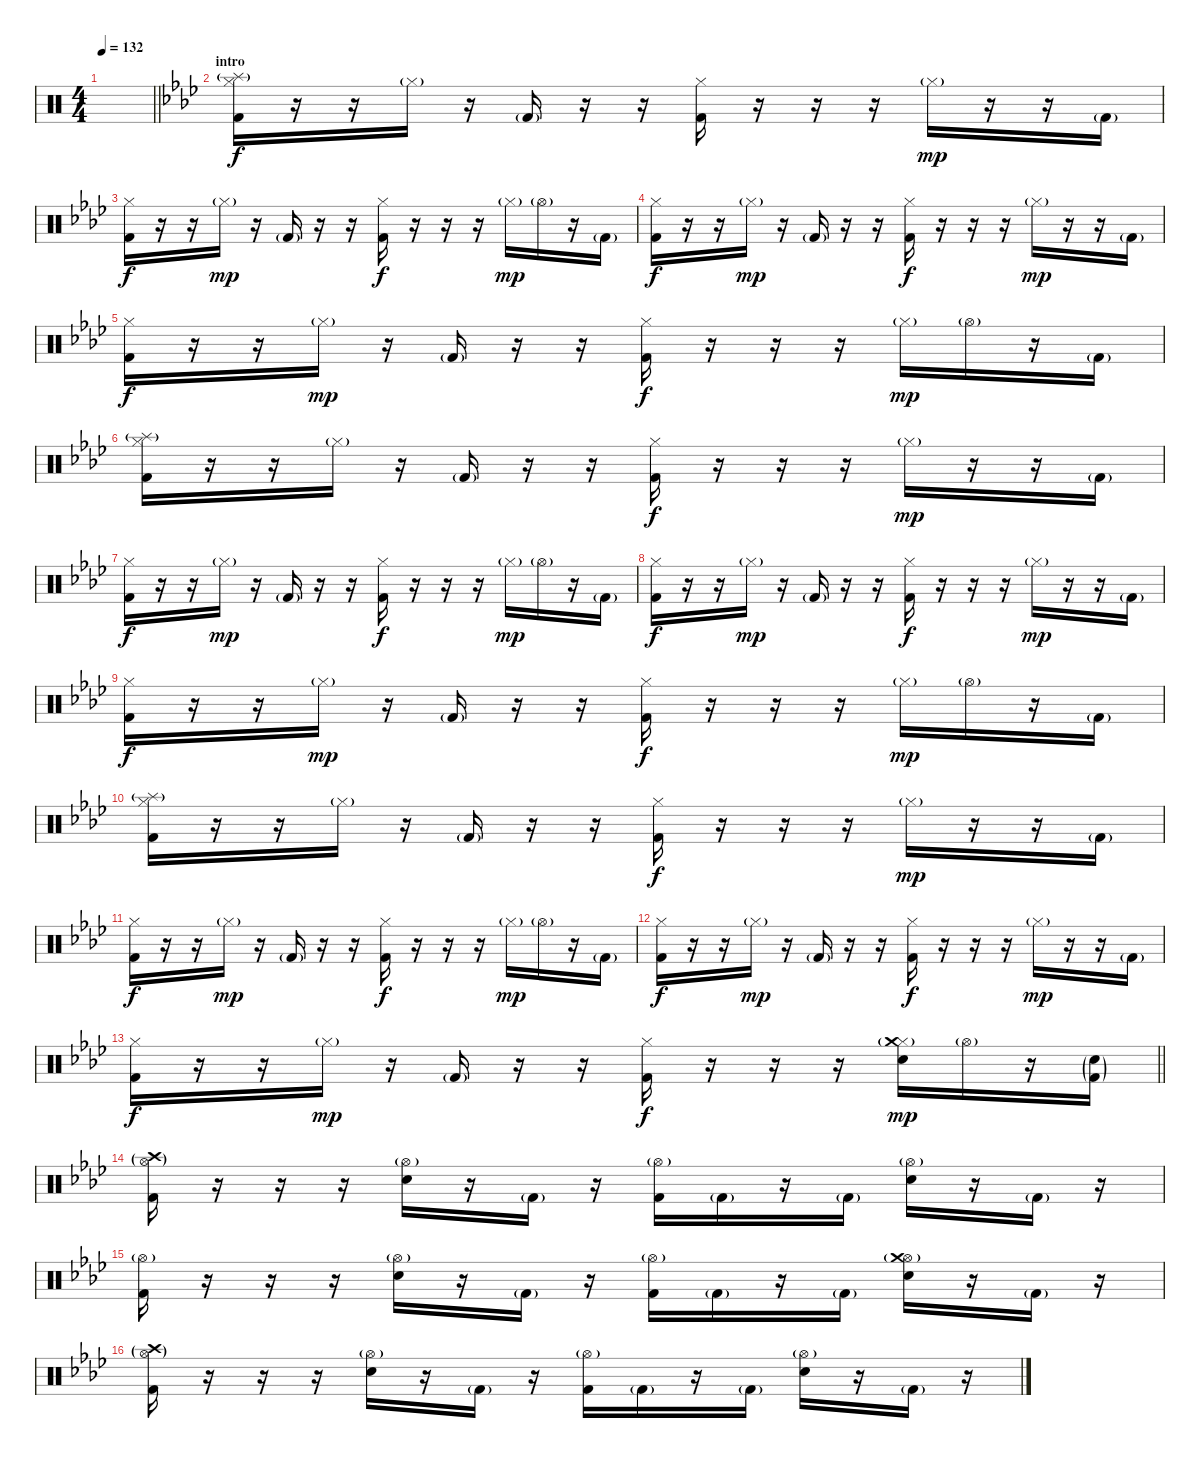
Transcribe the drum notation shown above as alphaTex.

\track "" {instrument percussion}
\staff {score}
\articulation defaults
\ts (4 4)
\tempo 132
\clef neutral
\barLineRight lightlight
\ks aminor
|
\section ("" "intro")
\ks fminor
("Kick (hit) 2" "Hi-Hat (closed)" "Splash (hit)"{g}).16 r.16 r.16 "Hi-Hat (closed)"{g}.16 r.16 "Kick (hit) 2"{g}.16 r.16 r.16 ("Kick (hit) 2" "Hi-Hat (closed)").16{dy f} r.16 r.16 r.16 "Hi-Hat (closed)"{g}.16{dy mp} r.16 r.16 "Kick (hit) 2"{g}.16 |
("Kick (hit) 2" "Hi-Hat (closed)").16{dy f} r.16 r.16 "Hi-Hat (closed)"{g}.16{dy mp} r.16 "Kick (hit) 2"{g}.16 r.16 r.16 ("Kick (hit) 2" "Hi-Hat (closed)").16{dy f} r.16 r.16 r.16 "Hi-Hat (closed)"{g}.16{dy mp} "Hi-Hat (open)"{g}.16 r.16 "Kick (hit) 2"{g}.16 |
("Kick (hit) 2" "Hi-Hat (closed)").16{dy f} r.16 r.16 "Hi-Hat (closed)"{g}.16{dy mp} r.16 "Kick (hit) 2"{g}.16 r.16 r.16 ("Kick (hit) 2" "Hi-Hat (closed)").16{dy f} r.16 r.16 r.16 "Hi-Hat (closed)"{g}.16{dy mp} r.16 r.16 "Kick (hit) 2"{g}.16 |
("Kick (hit) 2" "Hi-Hat (closed)").16{dy f} r.16 r.16 "Hi-Hat (closed)"{g}.16{dy mp} r.16 "Kick (hit) 2"{g}.16 r.16 r.16 ("Kick (hit) 2" "Hi-Hat (closed)").16{dy f} r.16 r.16 r.16 "Hi-Hat (closed)"{g}.16{dy mp} "Hi-Hat (open)"{g}.16 r.16 "Kick (hit) 2"{g}.16 |
("Kick (hit) 2" "Hi-Hat (closed)" "Splash (hit)"{g}).16 r.16 r.16 "Hi-Hat (closed)"{g}.16 r.16 "Kick (hit) 2"{g}.16 r.16 r.16 ("Kick (hit) 2" "Hi-Hat (closed)").16{dy f} r.16 r.16 r.16 "Hi-Hat (closed)"{g}.16{dy mp} r.16 r.16 "Kick (hit) 2"{g}.16 |
("Kick (hit) 2" "Hi-Hat (closed)").16{dy f} r.16 r.16 "Hi-Hat (closed)"{g}.16{dy mp} r.16 "Kick (hit) 2"{g}.16 r.16 r.16 ("Kick (hit) 2" "Hi-Hat (closed)").16{dy f} r.16 r.16 r.16 "Hi-Hat (closed)"{g}.16{dy mp} "Hi-Hat (open)"{g}.16 r.16 "Kick (hit) 2"{g}.16 |
("Kick (hit) 2" "Hi-Hat (closed)").16{dy f} r.16 r.16 "Hi-Hat (closed)"{g}.16{dy mp} r.16 "Kick (hit) 2"{g}.16 r.16 r.16 ("Kick (hit) 2" "Hi-Hat (closed)").16{dy f} r.16 r.16 r.16 "Hi-Hat (closed)"{g}.16{dy mp} r.16 r.16 "Kick (hit) 2"{g}.16 |
("Kick (hit) 2" "Hi-Hat (closed)").16{dy f} r.16 r.16 "Hi-Hat (closed)"{g}.16{dy mp} r.16 "Kick (hit) 2"{g}.16 r.16 r.16 ("Kick (hit) 2" "Hi-Hat (closed)").16{dy f} r.16 r.16 r.16 "Hi-Hat (closed)"{g}.16{dy mp} "Hi-Hat (open)"{g}.16 r.16 "Kick (hit) 2"{g}.16 |
("Kick (hit) 2" "Hi-Hat (closed)" "Splash (hit)"{g}).16 r.16 r.16 "Hi-Hat (closed)"{g}.16 r.16 "Kick (hit) 2"{g}.16 r.16 r.16 ("Kick (hit) 2" "Hi-Hat (closed)").16{dy f} r.16 r.16 r.16 "Hi-Hat (closed)"{g}.16{dy mp} r.16 r.16 "Kick (hit) 2"{g}.16 |
("Kick (hit) 2" "Hi-Hat (closed)").16{dy f} r.16 r.16 "Hi-Hat (closed)"{g}.16{dy mp} r.16 "Kick (hit) 2"{g}.16 r.16 r.16 ("Kick (hit) 2" "Hi-Hat (closed)").16{dy f} r.16 r.16 r.16 "Hi-Hat (closed)"{g}.16{dy mp} "Hi-Hat (open)"{g}.16 r.16 "Kick (hit) 2"{g}.16 |
("Kick (hit) 2" "Hi-Hat (closed)").16{dy f} r.16 r.16 "Hi-Hat (closed)"{g}.16{dy mp} r.16 "Kick (hit) 2"{g}.16 r.16 r.16 ("Kick (hit) 2" "Hi-Hat (closed)").16{dy f} r.16 r.16 r.16 "Hi-Hat (closed)"{g}.16{dy mp} r.16 r.16 "Kick (hit) 2"{g}.16 |
\barLineRight lightlight
("Kick (hit) 2" "Hi-Hat (closed)").16{dy f} r.16 r.16 "Hi-Hat (closed)"{g}.16{dy mp} r.16 "Kick (hit) 2"{g}.16 r.16 r.16 ("Kick (hit) 2" "Hi-Hat (closed)").16{dy f} r.16 r.16 r.16 ("Hi-Hat (closed)"{g} "Electric Snare (hit)" "Crash medium (hit)"{g}).16{dy mp} "Hi-Hat (open)"{g}.16 r.16 ("Kick (hit) 2"{g} "Electric Snare (hit)"{g}).16 |
("Kick (hit) 2" "Hi-Hat (open)"{g} "Crash high (hit)"{g}).16 r.16 r.16 r.16 ("Electric Snare (hit)" "Hi-Hat (open)"{g}).16 r.16 "Kick (hit) 2"{g}.16 r.16 ("Kick (hit) 2" "Hi-Hat (open)"{g}).16 "Kick (hit) 2"{g}.16 r.16 "Kick (hit) 2"{g}.16 ("Electric Snare (hit)" "Hi-Hat (open)"{g}).16 r.16 "Kick (hit) 2"{g}.16 r.16 |
("Kick (hit) 2" "Hi-Hat (open)"{g}).16 r.16 r.16 r.16 ("Electric Snare (hit)" "Hi-Hat (open)"{g}).16 r.16 "Kick (hit) 2"{g}.16 r.16 ("Kick (hit) 2" "Hi-Hat (open)"{g}).16 "Kick (hit) 2"{g}.16 r.16 "Kick (hit) 2"{g}.16 ("Electric Snare (hit)" "Hi-Hat (open)"{g} "Crash medium (hit)"{g}).16 r.16 "Kick (hit) 2"{g}.16 r.16 |
("Kick (hit) 2" "Hi-Hat (open)"{g} "Crash high (hit)"{g}).16 r.16 r.16 r.16 ("Electric Snare (hit)" "Hi-Hat (open)"{g}).16 r.16 "Kick (hit) 2"{g}.16 r.16 ("Kick (hit) 2" "Hi-Hat (open)"{g}).16 "Kick (hit) 2"{g}.16 r.16 "Kick (hit) 2"{g}.16 ("Electric Snare (hit)" "Hi-Hat (open)"{g}).16 r.16 "Kick (hit) 2"{g}.16 r.16
